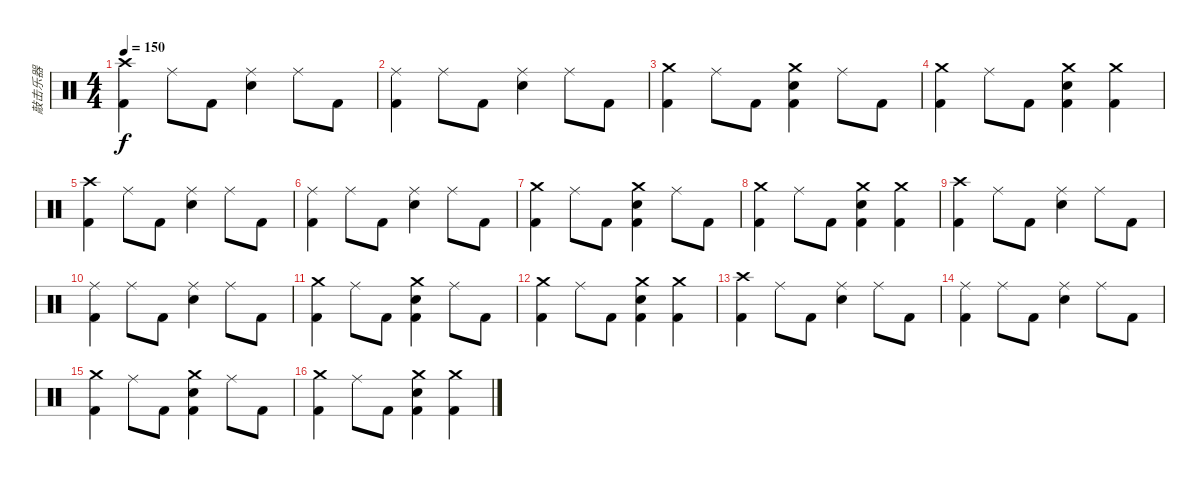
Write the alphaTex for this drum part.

\track ("敲击乐器" "敲击乐器") {instrument percussion}
\staff {score}
\articulation defaults
\ts (4 4)
\tempo 150
\clef neutral
\ks c
("Crash high (hit)" "Kick (hit) 2").4{dy f} "Ride (middle)".8 "Kick (hit) 2".8 ("Snare (hit) 2" "Ride (middle)").4 "Ride (middle)".8 "Kick (hit) 2".8 |
("Ride (middle)" "Kick (hit) 2").4 "Ride (middle)".8 "Kick (hit) 2".8 ("Snare (hit) 2" "Ride (middle)").4 "Ride (middle)".8 "Kick (hit) 2".8 |
("Crash medium (hit)" "Kick (hit) 2").4 "Ride (middle)".8 "Kick (hit) 2".8 ("Crash medium (hit)" "Kick (hit) 2" "Snare (hit) 2").4 "Ride (middle)".8 "Kick (hit) 2".8 |
("Kick (hit) 2" "Crash medium (hit)").4 "Ride (middle)".8 "Kick (hit) 2".8 ("Crash medium (hit)" "Kick (hit) 2" "Snare (hit) 2").4 ("Crash medium (hit)" "Kick (hit) 2").4 |
("Crash high (hit)" "Kick (hit) 2").4 "Ride (middle)".8 "Kick (hit) 2".8 ("Snare (hit) 2" "Ride (middle)").4 "Ride (middle)".8 "Kick (hit) 2".8 |
("Ride (middle)" "Kick (hit) 2").4 "Ride (middle)".8 "Kick (hit) 2".8 ("Snare (hit) 2" "Ride (middle)").4 "Ride (middle)".8 "Kick (hit) 2".8 |
("Crash medium (hit)" "Kick (hit) 2").4 "Ride (middle)".8 "Kick (hit) 2".8 ("Crash medium (hit)" "Kick (hit) 2" "Snare (hit) 2").4 "Ride (middle)".8 "Kick (hit) 2".8 |
("Kick (hit) 2" "Crash medium (hit)").4 "Ride (middle)".8 "Kick (hit) 2".8 ("Crash medium (hit)" "Kick (hit) 2" "Snare (hit) 2").4 ("Crash medium (hit)" "Kick (hit) 2").4 |
("Crash high (hit)" "Kick (hit) 2").4 "Ride (middle)".8 "Kick (hit) 2".8 ("Snare (hit) 2" "Ride (middle)").4 "Ride (middle)".8 "Kick (hit) 2".8 |
("Ride (middle)" "Kick (hit) 2").4 "Ride (middle)".8 "Kick (hit) 2".8 ("Snare (hit) 2" "Ride (middle)").4 "Ride (middle)".8 "Kick (hit) 2".8 |
("Crash medium (hit)" "Kick (hit) 2").4 "Ride (middle)".8 "Kick (hit) 2".8 ("Crash medium (hit)" "Kick (hit) 2" "Snare (hit) 2").4 "Ride (middle)".8 "Kick (hit) 2".8 |
("Kick (hit) 2" "Crash medium (hit)").4 "Ride (middle)".8 "Kick (hit) 2".8 ("Crash medium (hit)" "Kick (hit) 2" "Snare (hit) 2").4 ("Crash medium (hit)" "Kick (hit) 2").4 |
("Crash high (hit)" "Kick (hit) 2").4 "Ride (middle)".8 "Kick (hit) 2".8 ("Snare (hit) 2" "Ride (middle)").4 "Ride (middle)".8 "Kick (hit) 2".8 |
("Ride (middle)" "Kick (hit) 2").4 "Ride (middle)".8 "Kick (hit) 2".8 ("Snare (hit) 2" "Ride (middle)").4 "Ride (middle)".8 "Kick (hit) 2".8 |
("Crash medium (hit)" "Kick (hit) 2").4 "Ride (middle)".8 "Kick (hit) 2".8 ("Crash medium (hit)" "Kick (hit) 2" "Snare (hit) 2").4 "Ride (middle)".8 "Kick (hit) 2".8 |
("Kick (hit) 2" "Crash medium (hit)").4 "Ride (middle)".8 "Kick (hit) 2".8 ("Crash medium (hit)" "Kick (hit) 2" "Snare (hit) 2").4 ("Crash medium (hit)" "Kick (hit) 2").4
